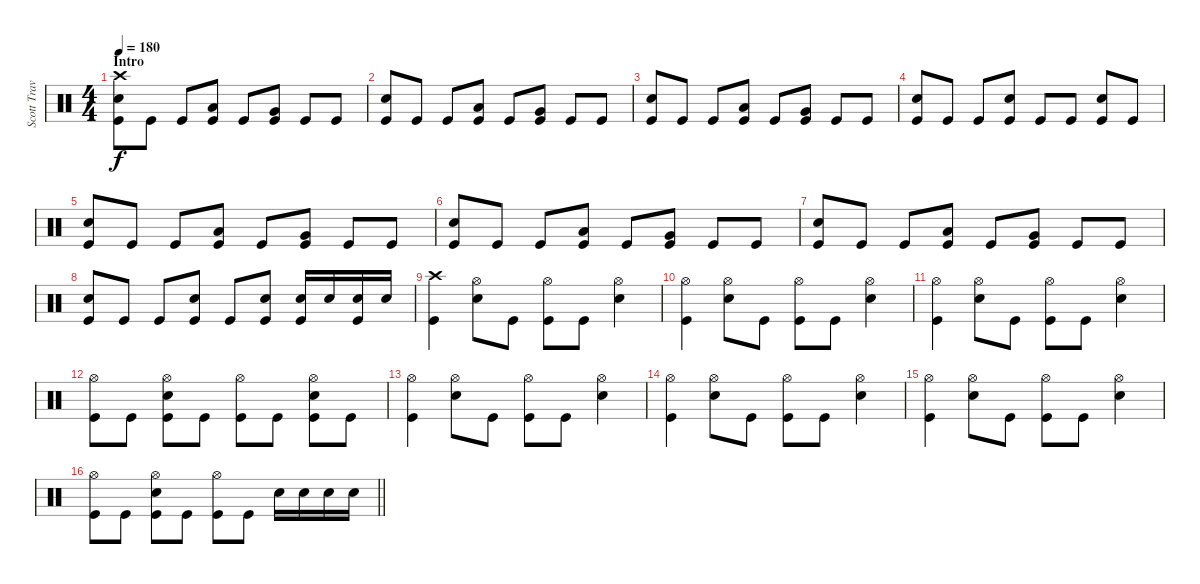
\track ("Scott Travis" "Scott Trav") {instrument percussion}
\staff {score}
\articulation defaults
\ts (4 4)
\section ("" "Intro")
\tempo 180
\clef neutral
\ks c
("Crash high (hit)" "Snare (hit) 2" "Kick (hit)").8{dy f} "Kick (hit)".8 "Kick (hit)".8 ("Low Tom (hit)" "Kick (hit)").8 "Kick (hit)".8 ("Very Low Tom (hit)" "Kick (hit)").8 "Kick (hit)".8 "Kick (hit)".8 |
("Snare (hit) 2" "Kick (hit)").8 "Kick (hit)".8 "Kick (hit)".8 ("Low Tom (hit)" "Kick (hit)").8 "Kick (hit)".8 ("Very Low Tom (hit)" "Kick (hit)").8 "Kick (hit)".8 "Kick (hit)".8 |
("Snare (hit) 2" "Kick (hit)").8 "Kick (hit)".8 "Kick (hit)".8 ("Low Tom (hit)" "Kick (hit)").8 "Kick (hit)".8 ("Very Low Tom (hit)" "Kick (hit)").8 "Kick (hit)".8 "Kick (hit)".8 |
("Snare (hit) 2" "Kick (hit)").8 "Kick (hit)".8 "Kick (hit)".8 ("Snare (hit) 2" "Kick (hit)").8 "Kick (hit)".8 "Kick (hit)".8 ("Snare (hit) 2" "Kick (hit)").8 "Kick (hit)".8 |
("Snare (hit) 2" "Kick (hit)").8 "Kick (hit)".8 "Kick (hit)".8 ("Low Tom (hit)" "Kick (hit)").8 "Kick (hit)".8 ("Very Low Tom (hit)" "Kick (hit)").8 "Kick (hit)".8 "Kick (hit)".8 |
("Snare (hit) 2" "Kick (hit)").8 "Kick (hit)".8 "Kick (hit)".8 ("Low Tom (hit)" "Kick (hit)").8 "Kick (hit)".8 ("Very Low Tom (hit)" "Kick (hit)").8 "Kick (hit)".8 "Kick (hit)".8 |
("Snare (hit) 2" "Kick (hit)").8 "Kick (hit)".8 "Kick (hit)".8 ("Low Tom (hit)" "Kick (hit)").8 "Kick (hit)".8 ("Very Low Tom (hit)" "Kick (hit)").8 "Kick (hit)".8 "Kick (hit)".8 |
("Snare (hit) 2" "Kick (hit)").8 "Kick (hit)".8 "Kick (hit)".8 ("Snare (hit) 2" "Kick (hit)").8 "Kick (hit)".8 ("Snare (hit) 2" "Kick (hit)").8 ("Snare (hit) 2" "Kick (hit)").16 "Snare (hit) 2".16 ("Snare (hit) 2" "Kick (hit)").16 "Snare (hit) 2".16 |
("Crash high (hit)" "Kick (hit)").4 ("Hi-Hat (open)" "Snare (hit) 2").8 "Kick (hit)".8 ("Hi-Hat (open)" "Kick (hit)").8 "Kick (hit)".8 ("Hi-Hat (open)" "Snare (hit) 2").4 |
("Hi-Hat (open)" "Kick (hit)").4 ("Hi-Hat (open)" "Snare (hit) 2").8 "Kick (hit)".8 ("Hi-Hat (open)" "Kick (hit)").8 "Kick (hit)".8 ("Hi-Hat (open)" "Snare (hit) 2").4 |
("Hi-Hat (open)" "Kick (hit)").4 ("Hi-Hat (open)" "Snare (hit) 2").8 "Kick (hit)".8 ("Hi-Hat (open)" "Kick (hit)").8 "Kick (hit)".8 ("Hi-Hat (open)" "Snare (hit) 2").4 |
("Hi-Hat (open)" "Kick (hit)").8 "Kick (hit)".8 ("Hi-Hat (open)" "Snare (hit) 2" "Kick (hit)").8 "Kick (hit)".8 ("Hi-Hat (open)" "Kick (hit)").8 "Kick (hit)".8 ("Hi-Hat (open)" "Snare (hit) 2" "Kick (hit)").8 "Kick (hit)".8 |
("Hi-Hat (open)" "Kick (hit)").4 ("Hi-Hat (open)" "Snare (hit) 2").8 "Kick (hit)".8 ("Hi-Hat (open)" "Kick (hit)").8 "Kick (hit)".8 ("Hi-Hat (open)" "Snare (hit) 2").4 |
("Hi-Hat (open)" "Kick (hit)").4 ("Hi-Hat (open)" "Snare (hit) 2").8 "Kick (hit)".8 ("Hi-Hat (open)" "Kick (hit)").8 "Kick (hit)".8 ("Hi-Hat (open)" "Snare (hit) 2").4 |
("Hi-Hat (open)" "Kick (hit)").4 ("Hi-Hat (open)" "Snare (hit) 2").8 "Kick (hit)".8 ("Hi-Hat (open)" "Kick (hit)").8 "Kick (hit)".8 ("Hi-Hat (open)" "Snare (hit) 2").4 |
\barLineRight lightlight
("Hi-Hat (open)" "Kick (hit)").8 "Kick (hit)".8 ("Hi-Hat (open)" "Snare (hit) 2" "Kick (hit)").8 "Kick (hit)".8 ("Hi-Hat (open)" "Kick (hit)").8 "Kick (hit)".8 "Snare (hit) 2".16 "Snare (hit) 2".16 "Snare (hit) 2".16 "Snare (hit) 2".16
